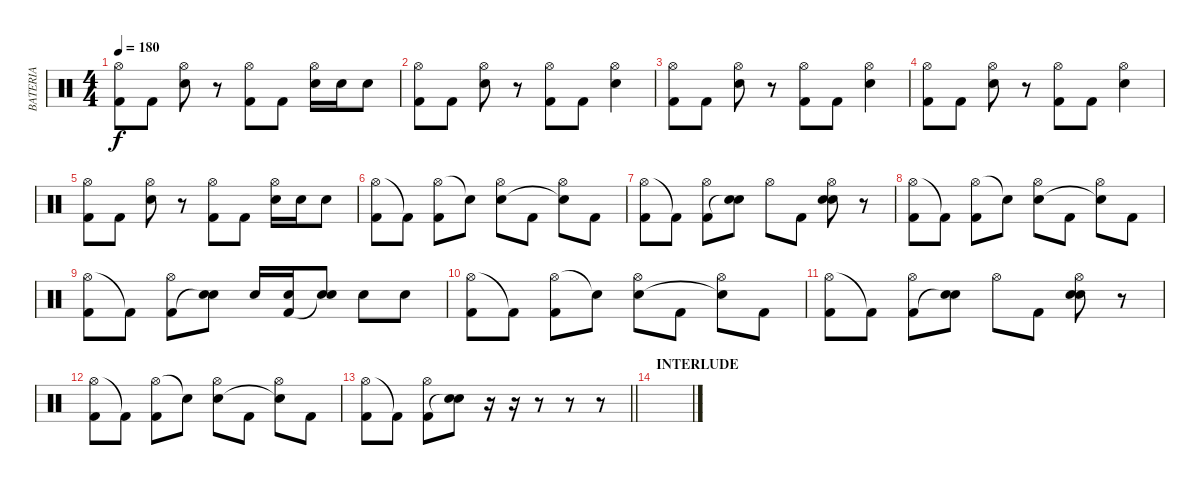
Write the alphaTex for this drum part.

\track ("BATERIA" "BATERIA") {instrument percussion}
\staff {score}
\articulation defaults
\ts (4 4)
\tempo 180
\clef neutral
\ks c
("Hi-Hat (open)" "Kick (hit) 2").8{dy f} "Kick (hit) 2".8 ("Hi-Hat (open)" "Electric Snare (hit)").8 r.8 ("Hi-Hat (open)" "Kick (hit) 2").8 "Kick (hit) 2".8 ("Hi-Hat (open)" "Electric Snare (hit)").16 "Electric Snare (hit)".16 "Electric Snare (hit)".8 |
("Hi-Hat (open)" "Kick (hit) 2").8 "Kick (hit) 2".8 ("Hi-Hat (open)" "Electric Snare (hit)").8 r.8 ("Hi-Hat (open)" "Kick (hit) 2").8 "Kick (hit) 2".8 ("Hi-Hat (open)" "Electric Snare (hit)").4 |
("Hi-Hat (open)" "Kick (hit) 2").8 "Kick (hit) 2".8 ("Hi-Hat (open)" "Electric Snare (hit)").8 r.8 ("Hi-Hat (open)" "Kick (hit) 2").8 "Kick (hit) 2".8 ("Hi-Hat (open)" "Electric Snare (hit)").4 |
("Hi-Hat (open)" "Kick (hit) 2").8 "Kick (hit) 2".8 ("Hi-Hat (open)" "Electric Snare (hit)").8 r.8 ("Hi-Hat (open)" "Kick (hit) 2").8 "Kick (hit) 2".8 ("Hi-Hat (open)" "Electric Snare (hit)").4 |
("Hi-Hat (open)" "Kick (hit) 2").8 "Kick (hit) 2".8 ("Hi-Hat (open)" "Electric Snare (hit)").8 r.8 ("Hi-Hat (open)" "Kick (hit) 2").8 "Kick (hit) 2".8 ("Hi-Hat (open)" "Electric Snare (hit)").16 "Electric Snare (hit)".16 "Electric Snare (hit)".8 |
("Hi-Hat (open)" "Kick (hit) 2").8 "Kick (hit) 2"{t}.8 ("Hi-Hat (open)" "Kick (hit) 2").8 "Snare (hit)"{t}.8 ("Hi-Hat (open)" "Electric Snare (hit)").8 "Kick (hit) 2".8 ("Hi-Hat (open)" "Snare (hit)"{t}).8 "Kick (hit) 2".8 |
("Hi-Hat (open)" "Kick (hit) 2").8 "Kick (hit) 2"{t}.8 ("Hi-Hat (open)" "Kick (hit) 2").8 ("Electric Snare (hit)" "Snare (hit)"{t}).8 "Hi-Hat (open)".8 "Kick (hit) 2".8 ("Hi-Hat (open)" "Electric Snare (hit)" "Snare (hit)").8 r.8 |
("Hi-Hat (open)" "Kick (hit) 2").8 "Kick (hit) 2"{t}.8 ("Hi-Hat (open)" "Kick (hit) 2").8 "Snare (hit)"{t}.8 ("Hi-Hat (open)" "Electric Snare (hit)").8 "Kick (hit) 2".8 ("Hi-Hat (open)" "Snare (hit)"{t}).8 "Kick (hit) 2".8 |
("Hi-Hat (open)" "Kick (hit) 2").8 "Kick (hit) 2"{t}.8 ("Hi-Hat (open)" "Kick (hit) 2").8 ("Electric Snare (hit)" "Snare (hit)"{t}).8 "Electric Snare (hit)".16 ("Electric Snare (hit)" "Kick (hit) 2").16 ("Electric Snare (hit)" "Snare (hit)"{t}).8 "Electric Snare (hit)".8 "Electric Snare (hit)".8 |
("Hi-Hat (open)" "Kick (hit) 2").8 "Kick (hit) 2"{t}.8 ("Hi-Hat (open)" "Kick (hit) 2").8 "Snare (hit)"{t}.8 ("Hi-Hat (open)" "Electric Snare (hit)").8 "Kick (hit) 2".8 ("Hi-Hat (open)" "Snare (hit)"{t}).8 "Kick (hit) 2".8 |
("Hi-Hat (open)" "Kick (hit) 2").8 "Kick (hit) 2"{t}.8 ("Hi-Hat (open)" "Kick (hit) 2").8 ("Electric Snare (hit)" "Snare (hit)"{t}).8 "Hi-Hat (open)".8 "Kick (hit) 2".8 ("Hi-Hat (open)" "Electric Snare (hit)" "Snare (hit)").8 r.8 |
("Hi-Hat (open)" "Kick (hit) 2").8 "Kick (hit) 2"{t}.8 ("Hi-Hat (open)" "Kick (hit) 2").8 "Snare (hit)"{t}.8 ("Hi-Hat (open)" "Electric Snare (hit)").8 "Kick (hit) 2".8 ("Hi-Hat (open)" "Snare (hit)"{t}).8 "Kick (hit) 2".8 |
\barLineRight lightlight
("Hi-Hat (open)" "Kick (hit) 2").8 "Kick (hit) 2"{t}.8 ("Hi-Hat (open)" "Kick (hit) 2").8 ("Electric Snare (hit)" "Snare (hit)"{t}).8 r.16 r.16 r.8 r.8 r.8 |
\section ("" "INTERLUDE")
